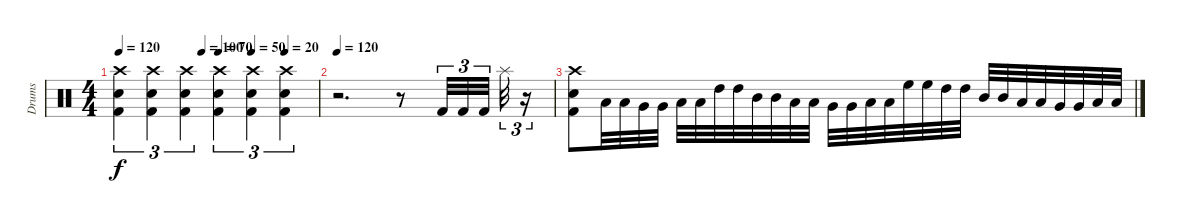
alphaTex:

\track ("Drums" "Drums") {instrument percussion}
\staff {score}
\articulation defaults
\ts (4 4)
\tempo 120
\tempo (100 0.4166666666666667)
\tempo (70 0.5)
\tempo (50 0.6666666666666666)
\tempo (20 0.8333333333333334)
\clef neutral
\ks c
("Crash high (hit)" "Snare (hit) 2" "Kick (hit) 2").4{tu (3 2) dy f} ("Crash high (hit)" "Snare (hit) 2" "Kick (hit) 2").4{tu (3 2)} ("Crash high (hit)" "Snare (hit) 2" "Kick (hit) 2").4{tu (3 2)} ("Crash high (hit)" "Snare (hit) 2" "Kick (hit) 2").4{tu (3 2)} ("Crash high (hit)" "Snare (hit) 2" "Kick (hit) 2").4{tu (3 2)} ("Crash high (hit)" "Snare (hit) 2" "Kick (hit) 2").4{tu (3 2)} |
\tempo 120
r.2{d} r.8 "Kick (hit) 2".32{tu (3 2)} "Kick (hit) 2".32{tu (3 2)} "Kick (hit) 2".32{tu (3 2) beam splitsecondary} "Splash (hit)".32{tu (3 2)} r.16{tu (3 2)} |
("Crash high (hit)" "Snare (hit) 2" "Kick (hit) 2").8 "Low Tom (hit)".32 "Low Tom (hit)".32 "Very Low Tom (hit)".32 "Very Low Tom (hit)".32 "Low Floor Tom (hit)".32 "Low Floor Tom (hit)".32 "High Tom (hit)".32 "High Tom (hit)".32 "Mid Tom (hit)".32 "Mid Tom (hit)".32 "Low Tom (hit)".32 "Low Tom (hit)".32 "Very Low Tom (hit)".32 "Very Low Tom (hit)".32 "Low Floor Tom (hit)".32 "Low Floor Tom (hit)".32 "High Floor Tom (hit)".32 "High Floor Tom (hit)".32 "High Tom (hit)".32 "High Tom (hit)".32 "Mid Tom (hit)".32 "Mid Tom (hit)".32 "Low Tom (hit)".32 "Low Tom (hit)".32 "Very Low Tom (hit)".32 "Very Low Tom (hit)".32 "Low Floor Tom (hit)".32 "Low Floor Tom (hit)".32
